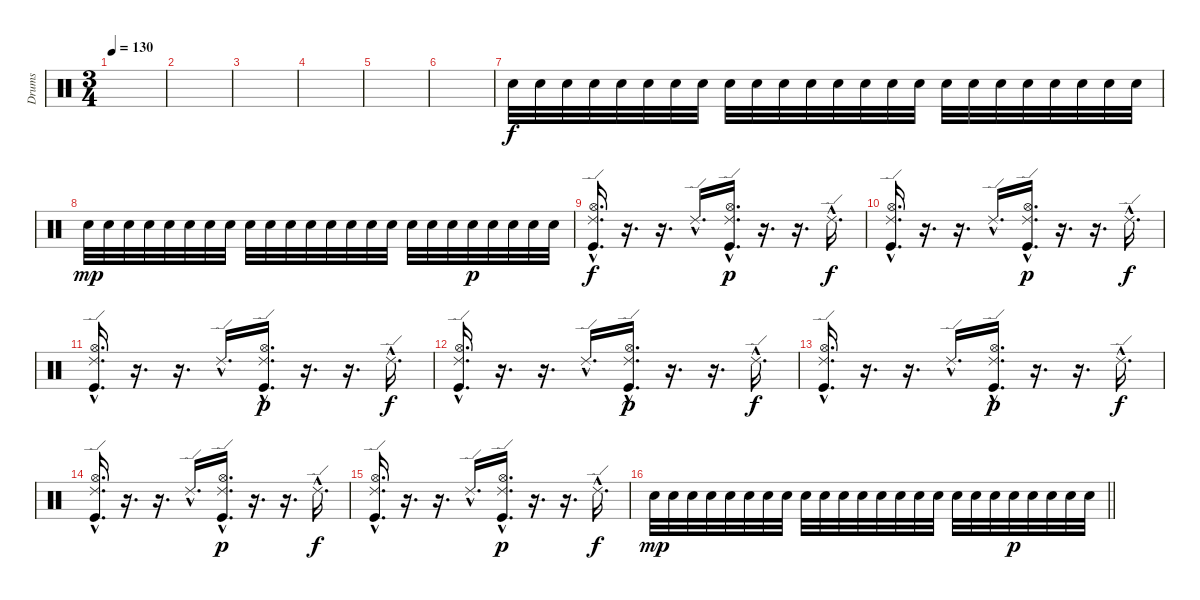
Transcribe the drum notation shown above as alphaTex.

\track ("Drums" "Drums") {instrument percussion}
\staff {score}
\articulation defaults
\ts (3 4)
\tempo 130
\clef neutral
\ks c
|
|
|
|
|
|
"Electric Snare (hit)".32 "Electric Snare (hit)".32 "Electric Snare (hit)".32 "Electric Snare (hit)".32 "Electric Snare (hit)".32 "Electric Snare (hit)".32 "Electric Snare (hit)".32 "Electric Snare (hit)".32 "Electric Snare (hit)".32 "Electric Snare (hit)".32 "Electric Snare (hit)".32 "Electric Snare (hit)".32 "Electric Snare (hit)".32 "Electric Snare (hit)".32 "Electric Snare (hit)".32 "Electric Snare (hit)".32 "Electric Snare (hit)".32 "Electric Snare (hit)".32 "Electric Snare (hit)".32 "Electric Snare (hit)".32 "Electric Snare (hit)".32 "Electric Snare (hit)".32 "Electric Snare (hit)".32 "Electric Snare (hit)".32 |
"Electric Snare (hit)".32{dy mp} "Electric Snare (hit)".32 "Electric Snare (hit)".32 "Electric Snare (hit)".32 "Electric Snare (hit)".32 "Electric Snare (hit)".32 "Electric Snare (hit)".32 "Electric Snare (hit)".32 "Electric Snare (hit)".32 "Electric Snare (hit)".32 "Electric Snare (hit)".32 "Electric Snare (hit)".32 "Electric Snare (hit)".32 "Electric Snare (hit)".32 "Electric Snare (hit)".32 "Electric Snare (hit)".32 "Electric Snare (hit)".32 "Electric Snare (hit)".32 "Electric Snare (hit)".32 "Electric Snare (hit)".32{dy p} "Electric Snare (hit)".32 "Electric Snare (hit)".32 "Electric Snare (hit)".32 "Electric Snare (hit)".32 |
("Ride (edge) 2"{hac} "Hi-Hat (open)"{hac} "Kick (hit)"{hac}).16{d dy f} r.16{d} r.16{d} "Ride (edge) 2"{hac}.16{d} ("Ride (edge) 2"{hac} "Hi-Hat (open)"{hac} "Kick (hit)"{hac}).16{d dy p} r.16{d} r.16{d} "Ride (edge) 2"{hac}.16{d dy f} |
("Ride (edge) 2"{hac} "Hi-Hat (open)"{hac} "Kick (hit)"{hac}).16{d} r.16{d} r.16{d} "Ride (edge) 2"{hac}.16{d} ("Ride (edge) 2"{hac} "Hi-Hat (open)"{hac} "Kick (hit)"{hac}).16{d dy p} r.16{d} r.16{d} "Ride (edge) 2"{hac}.16{d dy f} |
("Ride (edge) 2"{hac} "Hi-Hat (open)"{hac} "Kick (hit)"{hac}).16{d} r.16{d} r.16{d} "Ride (edge) 2"{hac}.16{d} ("Ride (edge) 2"{hac} "Hi-Hat (open)"{hac} "Kick (hit)"{hac}).16{d dy p} r.16{d} r.16{d} "Ride (edge) 2"{hac}.16{d dy f} |
("Ride (edge) 2"{hac} "Hi-Hat (open)"{hac} "Kick (hit)"{hac}).16{d} r.16{d} r.16{d} "Ride (edge) 2"{hac}.16{d} ("Ride (edge) 2"{hac} "Hi-Hat (open)"{hac} "Kick (hit)"{hac}).16{d dy p} r.16{d} r.16{d} "Ride (edge) 2"{hac}.16{d dy f} |
("Ride (edge) 2"{hac} "Hi-Hat (open)"{hac} "Kick (hit)"{hac}).16{d} r.16{d} r.16{d} "Ride (edge) 2"{hac}.16{d} ("Ride (edge) 2"{hac} "Hi-Hat (open)"{hac} "Kick (hit)"{hac}).16{d dy p} r.16{d} r.16{d} "Ride (edge) 2"{hac}.16{d dy f} |
("Ride (edge) 2"{hac} "Hi-Hat (open)"{hac} "Kick (hit)"{hac}).16{d} r.16{d} r.16{d} "Ride (edge) 2"{hac}.16{d} ("Ride (edge) 2"{hac} "Hi-Hat (open)"{hac} "Kick (hit)"{hac}).16{d dy p} r.16{d} r.16{d} "Ride (edge) 2"{hac}.16{d dy f} |
("Ride (edge) 2"{hac} "Hi-Hat (open)"{hac} "Kick (hit)"{hac}).16{d} r.16{d} r.16{d} "Ride (edge) 2"{hac}.16{d} ("Ride (edge) 2"{hac} "Hi-Hat (open)"{hac} "Kick (hit)"{hac}).16{d dy p} r.16{d} r.16{d} "Ride (edge) 2"{hac}.16{d dy f} |
\barLineRight lightlight "Electric Snare (hit)".32{dy mp} "Electric Snare (hit)".32 "Electric Snare (hit)".32 "Electric Snare (hit)".32 "Electric Snare (hit)".32 "Electric Snare (hit)".32 "Electric Snare (hit)".32 "Electric Snare (hit)".32 "Electric Snare (hit)".32 "Electric Snare (hit)".32 "Electric Snare (hit)".32 "Electric Snare (hit)".32 "Electric Snare (hit)".32 "Electric Snare (hit)".32 "Electric Snare (hit)".32 "Electric Snare (hit)".32 "Electric Snare (hit)".32 "Electric Snare (hit)".32 "Electric Snare (hit)".32 "Electric Snare (hit)".32{dy p} "Electric Snare (hit)".32 "Electric Snare (hit)".32 "Electric Snare (hit)".32 "Electric Snare (hit)".32
